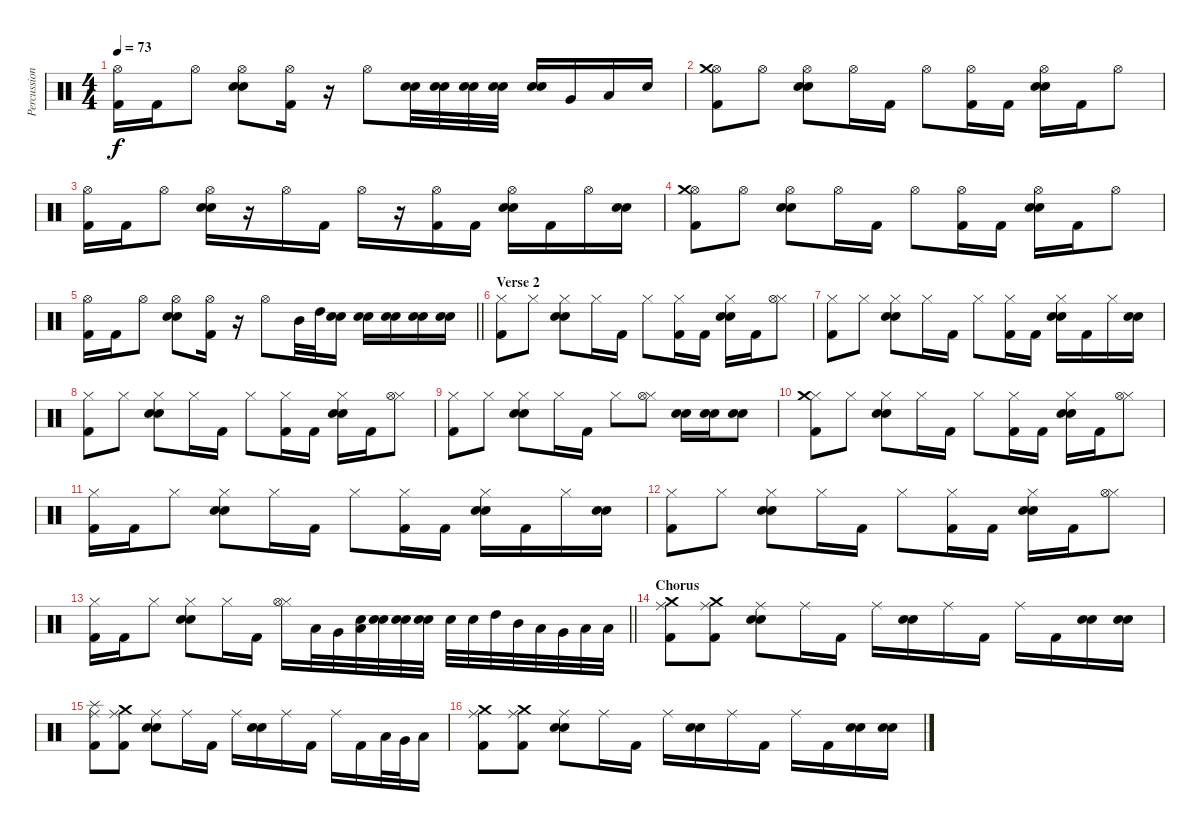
\track ("Percussion" "Percussion") {instrument percussion}
\staff {score}
\articulation defaults
\ts (4 4)
\tempo 73
\clef neutral
\ks c
("Hi-Hat (open)" "Kick (hit) 2").16{dy f} "Kick (hit) 2".16 "Hi-Hat (open)".8 ("Hi-Hat (open)" "Electric Snare (hit)" "Snare (hit) 2").8 ("Hi-Hat (open)" "Kick (hit) 2").16 r.16 "Hi-Hat (open)".8 ("Electric Snare (hit)" "Snare (hit) 2").32 ("Electric Snare (hit)" "Snare (hit) 2").32 ("Electric Snare (hit)" "Snare (hit) 2").32 ("Electric Snare (hit)" "Snare (hit) 2").32 ("Electric Snare (hit)" "Snare (hit) 2").16 "Very Low Tom (hit)".16 "Low Floor Tom (hit)".16 "Snare (hit) 2".16 |
("Hi-Hat (open)" "Crash medium (hit)" "Kick (hit) 2").8 "Hi-Hat (open)".8 ("Hi-Hat (open)" "Electric Snare (hit)" "Snare (hit) 2").8 "Hi-Hat (open)".16 "Kick (hit) 2".16 "Hi-Hat (open)".8 ("Hi-Hat (open)" "Kick (hit) 2").16 "Kick (hit) 2".16 ("Hi-Hat (open)" "Electric Snare (hit)" "Snare (hit) 2").16 "Kick (hit) 2".16 "Hi-Hat (open)".8 |
("Hi-Hat (open)" "Kick (hit) 2").16 "Kick (hit) 2".16 "Hi-Hat (open)".8 ("Hi-Hat (open)" "Electric Snare (hit)" "Snare (hit) 2").16 r.16 "Hi-Hat (open)".16 "Kick (hit) 2".16 "Hi-Hat (open)".16 r.16 ("Hi-Hat (open)" "Kick (hit) 2").16 "Kick (hit) 2".16 ("Hi-Hat (open)" "Electric Snare (hit)" "Snare (hit) 2").16 "Kick (hit) 2".16 "Hi-Hat (open)".16 ("Electric Snare (hit)" "Snare (hit) 2").16 |
("Hi-Hat (open)" "Crash medium (hit)" "Kick (hit) 2").8 "Hi-Hat (open)".8 ("Hi-Hat (open)" "Electric Snare (hit)" "Snare (hit) 2").8 "Hi-Hat (open)".16 "Kick (hit) 2".16 "Hi-Hat (open)".8 ("Hi-Hat (open)" "Kick (hit) 2").16 "Kick (hit) 2".16 ("Hi-Hat (open)" "Electric Snare (hit)" "Snare (hit) 2").16 "Kick (hit) 2".16 "Hi-Hat (open)".8 |
\barLineRight lightlight
("Hi-Hat (open)" "Kick (hit) 2").16 "Kick (hit) 2".16 "Hi-Hat (open)".8 ("Hi-Hat (open)" "Electric Snare (hit)" "Snare (hit) 2").8 ("Hi-Hat (open)" "Kick (hit) 2").16 r.16 "Hi-Hat (open)".8 "Mid Tom (hit)".32 "High Tom (hit)".32 ("Electric Snare (hit)" "Snare (hit) 2").16 ("Electric Snare (hit)" "Snare (hit) 2").16 ("Electric Snare (hit)" "Snare (hit) 2").16 ("Electric Snare (hit)" "Snare (hit) 2").16 ("Electric Snare (hit)" "Snare (hit) 2").16 |
\section ("" "Verse 2")
("Hi-Hat (closed)" "Kick (hit) 2").8 "Hi-Hat (closed)".8 ("Hi-Hat (closed)" "Electric Snare (hit)" "Snare (hit) 2").8 "Hi-Hat (closed)".16 "Kick (hit) 2".16 "Hi-Hat (closed)".8 ("Hi-Hat (closed)" "Kick (hit) 2").16 "Kick (hit) 2".16 ("Hi-Hat (closed)" "Electric Snare (hit)" "Snare (hit) 2").16 "Kick (hit) 2".16 ("Hi-Hat (closed)" "Hi-Hat (open)").8 |
("Hi-Hat (closed)" "Kick (hit) 2").8 "Hi-Hat (closed)".8 ("Hi-Hat (closed)" "Electric Snare (hit)" "Snare (hit) 2").8 "Hi-Hat (closed)".16 "Kick (hit) 2".16 "Hi-Hat (closed)".8 ("Hi-Hat (closed)" "Kick (hit) 2").16 "Kick (hit) 2".16 ("Hi-Hat (closed)" "Electric Snare (hit)" "Snare (hit) 2").16 "Kick (hit) 2".16 "Hi-Hat (closed)".16 ("Electric Snare (hit)" "Snare (hit) 2").16 |
("Hi-Hat (closed)" "Kick (hit) 2").8 "Hi-Hat (closed)".8 ("Hi-Hat (closed)" "Electric Snare (hit)" "Snare (hit) 2").8 "Hi-Hat (closed)".16 "Kick (hit) 2".16 "Hi-Hat (closed)".8 ("Hi-Hat (closed)" "Kick (hit) 2").16 "Kick (hit) 2".16 ("Hi-Hat (closed)" "Electric Snare (hit)" "Snare (hit) 2").16 "Kick (hit) 2".16 ("Hi-Hat (closed)" "Hi-Hat (open)").8 |
("Hi-Hat (closed)" "Kick (hit) 2").8 "Hi-Hat (closed)".8 ("Hi-Hat (closed)" "Electric Snare (hit)" "Snare (hit) 2").8 "Hi-Hat (closed)".16 "Kick (hit) 2".16 "Hi-Hat (closed)".8 ("Hi-Hat (closed)" "Hi-Hat (open)").8 ("Electric Snare (hit)" "Snare (hit) 2").16 ("Electric Snare (hit)" "Snare (hit) 2").16 ("Electric Snare (hit)" "Snare (hit) 2").8 |
("Hi-Hat (closed)" "Crash medium (hit)" "Kick (hit) 2").8 "Hi-Hat (closed)".8 ("Hi-Hat (closed)" "Electric Snare (hit)" "Snare (hit) 2").8 "Hi-Hat (closed)".16 "Kick (hit) 2".16 "Hi-Hat (closed)".8 ("Hi-Hat (closed)" "Kick (hit) 2").16 "Kick (hit) 2".16 ("Hi-Hat (closed)" "Electric Snare (hit)" "Snare (hit) 2").16 "Kick (hit) 2".16 ("Hi-Hat (closed)" "Hi-Hat (open)").8 |
("Hi-Hat (closed)" "Kick (hit) 2").16 "Kick (hit) 2".16 "Hi-Hat (closed)".8 ("Hi-Hat (closed)" "Electric Snare (hit)" "Snare (hit) 2").8 "Hi-Hat (closed)".16 "Kick (hit) 2".16 "Hi-Hat (closed)".8 ("Hi-Hat (closed)" "Kick (hit) 2").16 "Kick (hit) 2".16 ("Hi-Hat (closed)" "Electric Snare (hit)" "Snare (hit) 2").16 "Kick (hit) 2".16 "Hi-Hat (closed)".16 ("Electric Snare (hit)" "Snare (hit) 2").16 |
("Hi-Hat (closed)" "Kick (hit) 2").8 "Hi-Hat (closed)".8 ("Hi-Hat (closed)" "Electric Snare (hit)" "Snare (hit) 2").8 "Hi-Hat (closed)".16 "Kick (hit) 2".16 "Hi-Hat (closed)".8 ("Hi-Hat (closed)" "Kick (hit) 2").16 "Kick (hit) 2".16 ("Hi-Hat (closed)" "Electric Snare (hit)" "Snare (hit) 2").16 "Kick (hit) 2".16 ("Hi-Hat (closed)" "Hi-Hat (open)").8 |
\barLineRight lightlight
("Hi-Hat (closed)" "Kick (hit) 2").16 "Kick (hit) 2".16 "Hi-Hat (closed)".8 ("Hi-Hat (closed)" "Electric Snare (hit)" "Snare (hit) 2").8 "Hi-Hat (closed)".16 "Kick (hit) 2".16 ("Hi-Hat (closed)" "Hi-Hat (open)").16 "Low Floor Tom (hit)".32 "Very Low Tom (hit)".32 ("Low Tom (hit)" "Snare (hit) 2").32 ("Electric Snare (hit)" "Snare (hit) 2").32 ("Electric Snare (hit)" "Snare (hit) 2").32 ("Electric Snare (hit)" "Snare (hit) 2").32 "Snare (hit) 2".32 "Snare (hit) 2".32 "High Tom (hit)".32 "Mid Tom (hit)".32 "Low Tom (hit)".32 "Very Low Tom (hit)".32 "Low Floor Tom (hit)".32 "Low Floor Tom (hit)".32 |
\section ("" "Chorus")
("Ride (middle)" "Crash medium (hit)" "Kick (hit) 2").8 ("Ride (middle)" "Crash medium (hit)" "Kick (hit) 2").8 ("Ride (middle)" "Electric Snare (hit)" "Snare (hit) 2").8 "Ride (middle)".16 "Kick (hit) 2".16 "Ride (middle)".16 ("Electric Snare (hit)" "Snare (hit) 2").16 "Ride (middle)".16 "Kick (hit) 2".16 "Ride (middle)".16 "Kick (hit) 2".16 ("Electric Snare (hit)" "Snare (hit) 2").16 ("Electric Snare (hit)" "Snare (hit) 2").16 |
("Ride (middle)" "Splash (hit)" "Kick (hit) 2").8 ("Ride (middle)" "Crash medium (hit)" "Kick (hit) 2").8 ("Ride (middle)" "Electric Snare (hit)" "Snare (hit) 2").8 "Ride (middle)".16 "Kick (hit) 2".16 "Ride (middle)".16 ("Electric Snare (hit)" "Snare (hit) 2").16 "Ride (middle)".16 "Kick (hit) 2".16 "Ride (middle)".16 "Kick (hit) 2".16 "Low Tom (hit)".32 "Very Low Tom (hit)".32 "Low Floor Tom (hit)".16 |
("Ride (middle)" "Crash medium (hit)" "Kick (hit) 2").8 ("Ride (middle)" "Crash medium (hit)" "Kick (hit) 2").8 ("Ride (middle)" "Electric Snare (hit)" "Snare (hit) 2").8 "Ride (middle)".16 "Kick (hit) 2".16 "Ride (middle)".16 ("Electric Snare (hit)" "Snare (hit) 2").16 "Ride (middle)".16 "Kick (hit) 2".16 "Ride (middle)".16 "Kick (hit) 2".16 ("Electric Snare (hit)" "Snare (hit) 2").16 ("Electric Snare (hit)" "Snare (hit) 2").16
